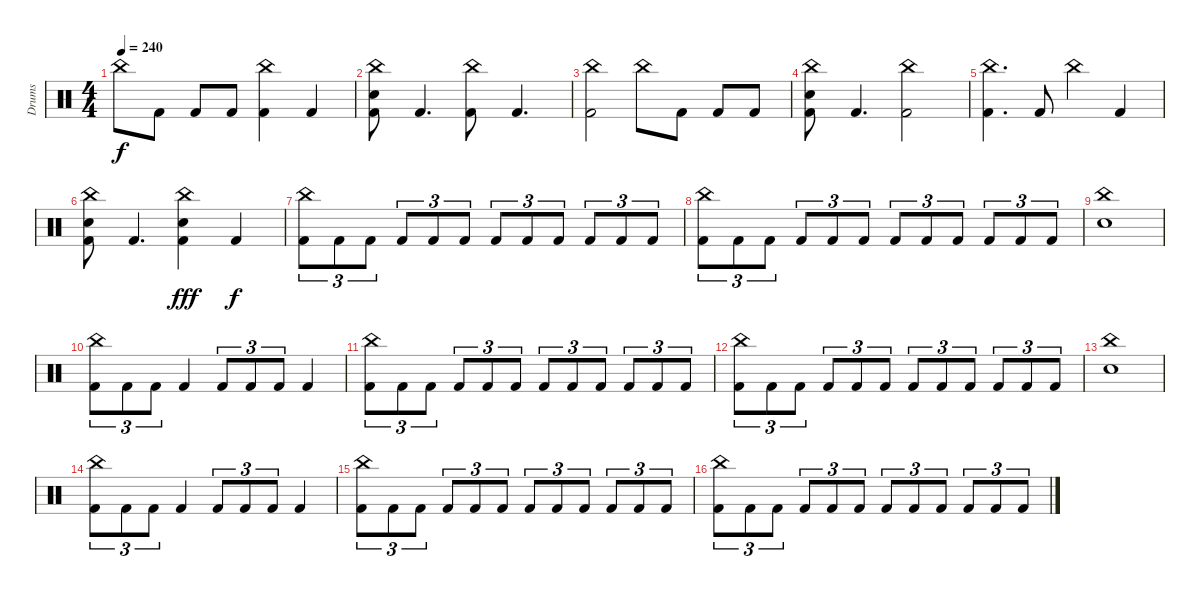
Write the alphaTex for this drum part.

\track ("Drums" "Drums") {instrument percussion}
\staff {score}
\articulation defaults
\ts (4 4)
\tempo 240
\clef neutral
\ks c "China (hit)".8{dy f} "Kick (hit) 2".8 "Kick (hit) 2".8 "Kick (hit) 2".8
("China (hit)" "Kick (hit) 2").4 "Kick (hit) 2".4 |
("Snare (hit) 2" "China (hit)" "Kick (hit) 2").8 "Kick (hit) 2".4{d} ("China (hit)" "Kick (hit) 2").8 "Kick (hit) 2".4{d} |
("China (hit)" "Kick (hit) 2").2 "China (hit)".8 "Kick (hit) 2".8 "Kick (hit) 2".8 "Kick (hit) 2".8 |
("Snare (hit) 2" "China (hit)" "Kick (hit) 2").8 "Kick (hit) 2".4{d} ("China (hit)" "Kick (hit) 2").2 |
("China (hit)" "Kick (hit) 2").4{d} "Kick (hit) 2".8 "China (hit)".4 "Kick (hit) 2".4 |
("Snare (hit) 2" "China (hit)" "Kick (hit) 2").8 "Kick (hit) 2".4{d} ("Snare (hit) 2" "China (hit)" "Kick (hit) 2").4{dy fff} "Kick (hit) 2".4{dy f} |
("China (hit)" "Kick (hit) 2").8{tu (3 2)} "Kick (hit) 2".8{tu (3 2)} "Kick (hit) 2".8{tu (3 2)} "Kick (hit) 2".8{tu (3 2)} "Kick (hit) 2".8{tu (3 2)} "Kick (hit) 2".8{tu (3 2)} "Kick (hit) 2".8{tu (3 2)} "Kick (hit) 2".8{tu (3 2)} "Kick (hit) 2".8{tu (3 2)} "Kick (hit) 2".8{tu (3 2)} "Kick (hit) 2".8{tu (3 2)} "Kick (hit) 2".8{tu (3 2)} |
("China (hit)" "Kick (hit) 2").8{tu (3 2)} "Kick (hit) 2".8{tu (3 2)} "Kick (hit) 2".8{tu (3 2)} "Kick (hit) 2".8{tu (3 2)} "Kick (hit) 2".8{tu (3 2)} "Kick (hit) 2".8{tu (3 2)} "Kick (hit) 2".8{tu (3 2)} "Kick (hit) 2".8{tu (3 2)} "Kick (hit) 2".8{tu (3 2)} "Kick (hit) 2".8{tu (3 2)} "Kick (hit) 2".8{tu (3 2)} "Kick (hit) 2".8{tu (3 2)} |
("Snare (hit) 2" "China (hit)").1 |
("China (hit)" "Kick (hit) 2").8{tu (3 2)} "Kick (hit) 2".8{tu (3 2)} "Kick (hit) 2".8{tu (3 2)} "Kick (hit) 2".4 "Kick (hit) 2".8{tu (3 2)} "Kick (hit) 2".8{tu (3 2)} "Kick (hit) 2".8{tu (3 2)} "Kick (hit) 2".4 |
("China (hit)" "Kick (hit) 2").8{tu (3 2)} "Kick (hit) 2".8{tu (3 2)} "Kick (hit) 2".8{tu (3 2)} "Kick (hit) 2".8{tu (3 2)} "Kick (hit) 2".8{tu (3 2)} "Kick (hit) 2".8{tu (3 2)} "Kick (hit) 2".8{tu (3 2)} "Kick (hit) 2".8{tu (3 2)} "Kick (hit) 2".8{tu (3 2)} "Kick (hit) 2".8{tu (3 2)} "Kick (hit) 2".8{tu (3 2)} "Kick (hit) 2".8{tu (3 2)} |
("China (hit)" "Kick (hit) 2").8{tu (3 2)} "Kick (hit) 2".8{tu (3 2)} "Kick (hit) 2".8{tu (3 2)} "Kick (hit) 2".8{tu (3 2)} "Kick (hit) 2".8{tu (3 2)} "Kick (hit) 2".8{tu (3 2)} "Kick (hit) 2".8{tu (3 2)} "Kick (hit) 2".8{tu (3 2)} "Kick (hit) 2".8{tu (3 2)} "Kick (hit) 2".8{tu (3 2)} "Kick (hit) 2".8{tu (3 2)} "Kick (hit) 2".8{tu (3 2)} |
("Snare (hit) 2" "China (hit)").1 |
("China (hit)" "Kick (hit) 2").8{tu (3 2)} "Kick (hit) 2".8{tu (3 2)} "Kick (hit) 2".8{tu (3 2)} "Kick (hit) 2".4 "Kick (hit) 2".8{tu (3 2)} "Kick (hit) 2".8{tu (3 2)} "Kick (hit) 2".8{tu (3 2)} "Kick (hit) 2".4 |
("China (hit)" "Kick (hit) 2").8{tu (3 2)} "Kick (hit) 2".8{tu (3 2)} "Kick (hit) 2".8{tu (3 2)} "Kick (hit) 2".8{tu (3 2)} "Kick (hit) 2".8{tu (3 2)} "Kick (hit) 2".8{tu (3 2)} "Kick (hit) 2".8{tu (3 2)} "Kick (hit) 2".8{tu (3 2)} "Kick (hit) 2".8{tu (3 2)} "Kick (hit) 2".8{tu (3 2)} "Kick (hit) 2".8{tu (3 2)} "Kick (hit) 2".8{tu (3 2)} |
("China (hit)" "Kick (hit) 2").8{tu (3 2)} "Kick (hit) 2".8{tu (3 2)} "Kick (hit) 2".8{tu (3 2)} "Kick (hit) 2".8{tu (3 2)} "Kick (hit) 2".8{tu (3 2)} "Kick (hit) 2".8{tu (3 2)} "Kick (hit) 2".8{tu (3 2)} "Kick (hit) 2".8{tu (3 2)} "Kick (hit) 2".8{tu (3 2)} "Kick (hit) 2".8{tu (3 2)} "Kick (hit) 2".8{tu (3 2)} "Kick (hit) 2".8{tu (3 2)}
